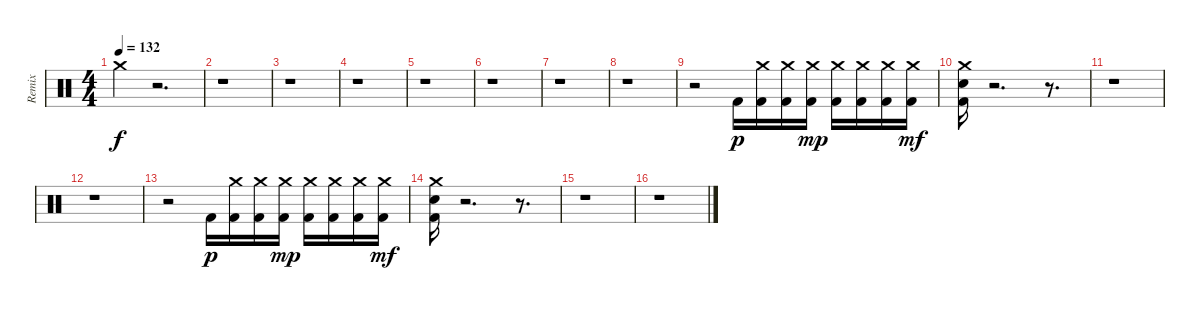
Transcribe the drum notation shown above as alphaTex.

\track ("Remix" "Remix") {instrument percussion}
\staff {score}
\articulation defaults
\ts (4 4)
\tempo 132
\clef neutral
\ks c "Crash medium (hit)".4{dy f}
r.2{d} |
r.1 |
r.1 |
r.1 |
r.1 |
r.1 |
r.1 |
r.1 |
r.2 "Kick (hit) 2".16{dy p} ("Kick (hit) 2" "Crash medium (hit)").16 ("Crash medium (hit)" "Kick (hit) 2").16 ("Kick (hit) 2" "Crash medium (hit)").16{dy mp} ("Crash medium (hit)" "Kick (hit) 2").16 ("Kick (hit) 2" "Crash medium (hit)").16 ("Kick (hit) 2" "Crash medium (hit)").16 ("Crash medium (hit)" "Kick (hit) 2").16{dy mf} |
("Kick (hit) 2" "Snare (hit) 2" "Crash medium (hit)").16 r.2{d} r.8{d} |
r.1 |
r.1 |
r.2 "Kick (hit) 2".16{dy p} ("Kick (hit) 2" "Crash medium (hit)").16 ("Crash medium (hit)" "Kick (hit) 2").16 ("Kick (hit) 2" "Crash medium (hit)").16{dy mp} ("Crash medium (hit)" "Kick (hit) 2").16 ("Kick (hit) 2" "Crash medium (hit)").16 ("Kick (hit) 2" "Crash medium (hit)").16 ("Crash medium (hit)" "Kick (hit) 2").16{dy mf} |
("Kick (hit) 2" "Snare (hit) 2" "Crash medium (hit)").16 r.2{d} r.8{d} |
r.1 |
r.1
